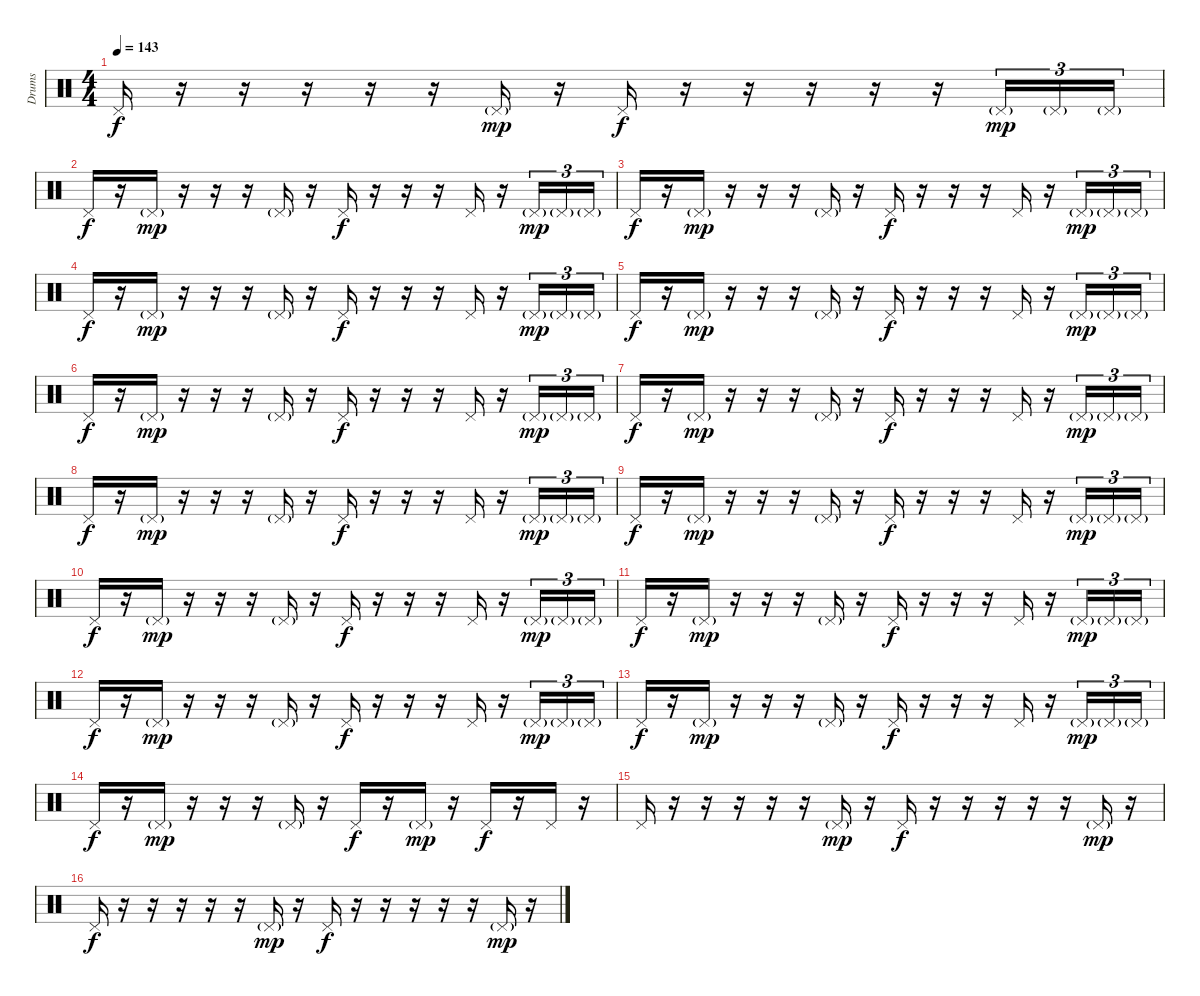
\track ("Drums" "Drums") {instrument percussion}
\staff {score}
\articulation defaults
\ts (4 4)
\tempo 143
\clef neutral
\ks c "Pedal Hi-Hat (hit)".16{dy f}
r.16 r.16 r.16 r.16 r.16 "Pedal Hi-Hat (hit)"{g}.16{dy mp} r.16 "Pedal Hi-Hat (hit)".16{dy f} r.16 r.16 r.16 r.16 r.16 "Pedal Hi-Hat (hit)"{g}.16{tu (3 2) dy mp} "Pedal Hi-Hat (hit)"{g}.16{tu (3 2)} "Pedal Hi-Hat (hit)"{g}.16{tu (3 2)} |
"Pedal Hi-Hat (hit)".16{dy f} r.16 "Pedal Hi-Hat (hit)"{g}.16{dy mp} r.16 r.16 r.16 "Pedal Hi-Hat (hit)"{g}.16 r.16 "Pedal Hi-Hat (hit)".16{dy f} r.16 r.16 r.16 "Pedal Hi-Hat (hit)".16 r.16 "Pedal Hi-Hat (hit)"{g}.16{tu (3 2) dy mp} "Pedal Hi-Hat (hit)"{g}.16{tu (3 2)} "Pedal Hi-Hat (hit)"{g}.16{tu (3 2)} |
"Pedal Hi-Hat (hit)".16{dy f} r.16 "Pedal Hi-Hat (hit)"{g}.16{dy mp} r.16 r.16 r.16 "Pedal Hi-Hat (hit)"{g}.16 r.16 "Pedal Hi-Hat (hit)".16{dy f} r.16 r.16 r.16 "Pedal Hi-Hat (hit)".16 r.16 "Pedal Hi-Hat (hit)"{g}.16{tu (3 2) dy mp} "Pedal Hi-Hat (hit)"{g}.16{tu (3 2)} "Pedal Hi-Hat (hit)"{g}.16{tu (3 2)} |
"Pedal Hi-Hat (hit)".16{dy f} r.16 "Pedal Hi-Hat (hit)"{g}.16{dy mp} r.16 r.16 r.16 "Pedal Hi-Hat (hit)"{g}.16 r.16 "Pedal Hi-Hat (hit)".16{dy f} r.16 r.16 r.16 "Pedal Hi-Hat (hit)".16 r.16 "Pedal Hi-Hat (hit)"{g}.16{tu (3 2) dy mp} "Pedal Hi-Hat (hit)"{g}.16{tu (3 2)} "Pedal Hi-Hat (hit)"{g}.16{tu (3 2)} |
"Pedal Hi-Hat (hit)".16{dy f} r.16 "Pedal Hi-Hat (hit)"{g}.16{dy mp} r.16 r.16 r.16 "Pedal Hi-Hat (hit)"{g}.16 r.16 "Pedal Hi-Hat (hit)".16{dy f} r.16 r.16 r.16 "Pedal Hi-Hat (hit)".16 r.16 "Pedal Hi-Hat (hit)"{g}.16{tu (3 2) dy mp} "Pedal Hi-Hat (hit)"{g}.16{tu (3 2)} "Pedal Hi-Hat (hit)"{g}.16{tu (3 2)} |
"Pedal Hi-Hat (hit)".16{dy f} r.16 "Pedal Hi-Hat (hit)"{g}.16{dy mp} r.16 r.16 r.16 "Pedal Hi-Hat (hit)"{g}.16 r.16 "Pedal Hi-Hat (hit)".16{dy f} r.16 r.16 r.16 "Pedal Hi-Hat (hit)".16 r.16 "Pedal Hi-Hat (hit)"{g}.16{tu (3 2) dy mp} "Pedal Hi-Hat (hit)"{g}.16{tu (3 2)} "Pedal Hi-Hat (hit)"{g}.16{tu (3 2)} |
"Pedal Hi-Hat (hit)".16{dy f} r.16 "Pedal Hi-Hat (hit)"{g}.16{dy mp} r.16 r.16 r.16 "Pedal Hi-Hat (hit)"{g}.16 r.16 "Pedal Hi-Hat (hit)".16{dy f} r.16 r.16 r.16 "Pedal Hi-Hat (hit)".16 r.16 "Pedal Hi-Hat (hit)"{g}.16{tu (3 2) dy mp} "Pedal Hi-Hat (hit)"{g}.16{tu (3 2)} "Pedal Hi-Hat (hit)"{g}.16{tu (3 2)} |
"Pedal Hi-Hat (hit)".16{dy f} r.16 "Pedal Hi-Hat (hit)"{g}.16{dy mp} r.16 r.16 r.16 "Pedal Hi-Hat (hit)"{g}.16 r.16 "Pedal Hi-Hat (hit)".16{dy f} r.16 r.16 r.16 "Pedal Hi-Hat (hit)".16 r.16 "Pedal Hi-Hat (hit)"{g}.16{tu (3 2) dy mp} "Pedal Hi-Hat (hit)"{g}.16{tu (3 2)} "Pedal Hi-Hat (hit)"{g}.16{tu (3 2)} |
"Pedal Hi-Hat (hit)".16{dy f} r.16 "Pedal Hi-Hat (hit)"{g}.16{dy mp} r.16 r.16 r.16 "Pedal Hi-Hat (hit)"{g}.16 r.16 "Pedal Hi-Hat (hit)".16{dy f} r.16 r.16 r.16 "Pedal Hi-Hat (hit)".16 r.16 "Pedal Hi-Hat (hit)"{g}.16{tu (3 2) dy mp} "Pedal Hi-Hat (hit)"{g}.16{tu (3 2)} "Pedal Hi-Hat (hit)"{g}.16{tu (3 2)} |
"Pedal Hi-Hat (hit)".16{dy f} r.16 "Pedal Hi-Hat (hit)"{g}.16{dy mp} r.16 r.16 r.16 "Pedal Hi-Hat (hit)"{g}.16 r.16 "Pedal Hi-Hat (hit)".16{dy f} r.16 r.16 r.16 "Pedal Hi-Hat (hit)".16 r.16 "Pedal Hi-Hat (hit)"{g}.16{tu (3 2) dy mp} "Pedal Hi-Hat (hit)"{g}.16{tu (3 2)} "Pedal Hi-Hat (hit)"{g}.16{tu (3 2)} |
"Pedal Hi-Hat (hit)".16{dy f} r.16 "Pedal Hi-Hat (hit)"{g}.16{dy mp} r.16 r.16 r.16 "Pedal Hi-Hat (hit)"{g}.16 r.16 "Pedal Hi-Hat (hit)".16{dy f} r.16 r.16 r.16 "Pedal Hi-Hat (hit)".16 r.16 "Pedal Hi-Hat (hit)"{g}.16{tu (3 2) dy mp} "Pedal Hi-Hat (hit)"{g}.16{tu (3 2)} "Pedal Hi-Hat (hit)"{g}.16{tu (3 2)} |
"Pedal Hi-Hat (hit)".16{dy f} r.16 "Pedal Hi-Hat (hit)"{g}.16{dy mp} r.16 r.16 r.16 "Pedal Hi-Hat (hit)"{g}.16 r.16 "Pedal Hi-Hat (hit)".16{dy f} r.16 r.16 r.16 "Pedal Hi-Hat (hit)".16 r.16 "Pedal Hi-Hat (hit)"{g}.16{tu (3 2) dy mp} "Pedal Hi-Hat (hit)"{g}.16{tu (3 2)} "Pedal Hi-Hat (hit)"{g}.16{tu (3 2)} |
"Pedal Hi-Hat (hit)".16{dy f} r.16 "Pedal Hi-Hat (hit)"{g}.16{dy mp} r.16 r.16 r.16 "Pedal Hi-Hat (hit)"{g}.16 r.16 "Pedal Hi-Hat (hit)".16{dy f} r.16 r.16 r.16 "Pedal Hi-Hat (hit)".16 r.16 "Pedal Hi-Hat (hit)"{g}.16{tu (3 2) dy mp} "Pedal Hi-Hat (hit)"{g}.16{tu (3 2)} "Pedal Hi-Hat (hit)"{g}.16{tu (3 2)} |
"Pedal Hi-Hat (hit)".16{dy f} r.16 "Pedal Hi-Hat (hit)"{g}.16{dy mp} r.16 r.16 r.16 "Pedal Hi-Hat (hit)"{g}.16 r.16 "Pedal Hi-Hat (hit)".16{dy f} r.16 "Pedal Hi-Hat (hit)"{g}.16{dy mp} r.16 "Pedal Hi-Hat (hit)".16{dy f} r.16 "Pedal Hi-Hat (hit)".16 r.16 |
"Pedal Hi-Hat (hit)".16 r.16 r.16 r.16 r.16 r.16 "Pedal Hi-Hat (hit)"{g}.16{dy mp} r.16 "Pedal Hi-Hat (hit)".16{dy f} r.16 r.16 r.16 r.16 r.16 "Pedal Hi-Hat (hit)"{g}.16{dy mp} r.16 |
"Pedal Hi-Hat (hit)".16{dy f} r.16 r.16 r.16 r.16 r.16 "Pedal Hi-Hat (hit)"{g}.16{dy mp} r.16 "Pedal Hi-Hat (hit)".16{dy f} r.16 r.16 r.16 r.16 r.16 "Pedal Hi-Hat (hit)"{g}.16{dy mp} r.16
